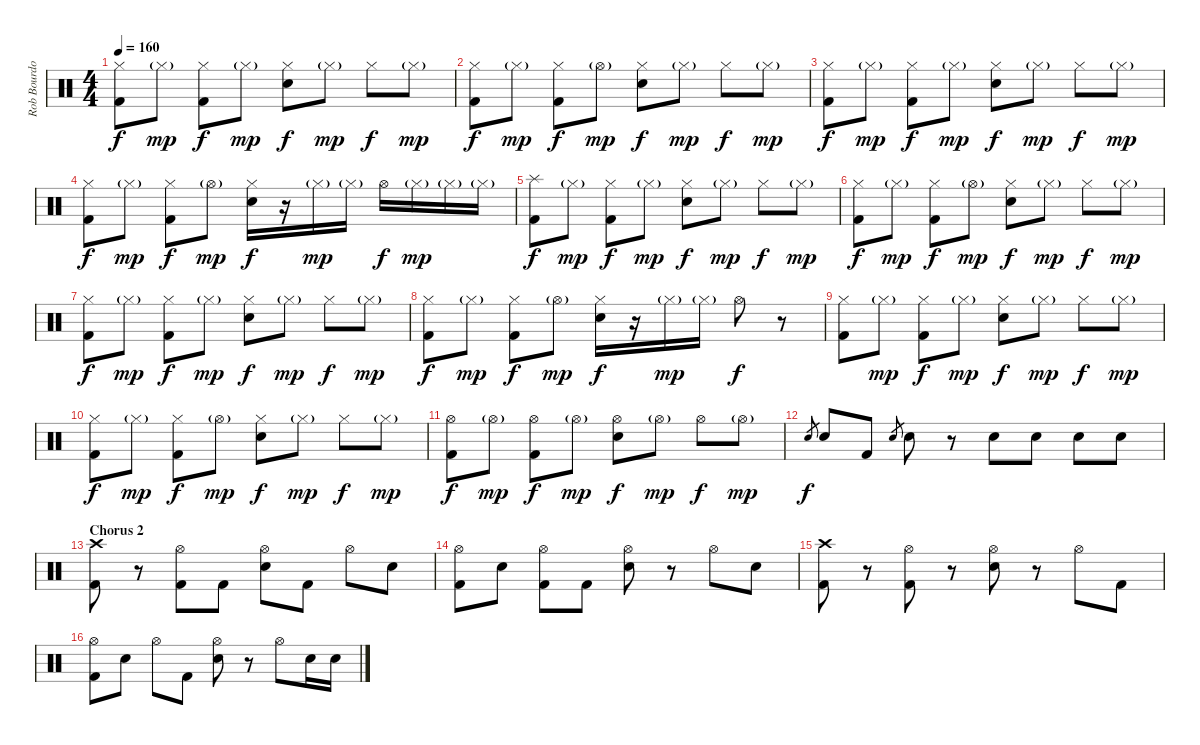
\track ("Rob Bourdon (Drums)" "Rob Bourdo") {instrument percussion}
\staff {score}
\articulation defaults
\ts (4 4)
\tempo 160
\clef neutral
\ks c
("Hi-Hat (closed)" "Kick (hit) 2").8{dy f} "Hi-Hat (closed)"{g}.8{dy mp} ("Hi-Hat (closed)" "Kick (hit) 2").8{dy f} "Hi-Hat (closed)"{g}.8{dy mp} ("Hi-Hat (closed)" "Electric Snare (hit)").8{dy f} "Hi-Hat (closed)"{g}.8{dy mp} "Hi-Hat (closed)".8{dy f} "Hi-Hat (closed)"{g}.8{dy mp} |
("Hi-Hat (closed)" "Kick (hit) 2").8{dy f} "Hi-Hat (closed)"{g}.8{dy mp} ("Hi-Hat (closed)" "Kick (hit) 2").8{dy f} "Hi-Hat (open)"{g}.8{dy mp} ("Hi-Hat (closed)" "Electric Snare (hit)").8{dy f} "Hi-Hat (closed)"{g}.8{dy mp} "Hi-Hat (closed)".8{dy f} "Hi-Hat (closed)"{g}.8{dy mp} |
("Hi-Hat (closed)" "Kick (hit) 2").8{dy f} "Hi-Hat (closed)"{g}.8{dy mp} ("Hi-Hat (closed)" "Kick (hit) 2").8{dy f} "Hi-Hat (closed)"{g}.8{dy mp} ("Hi-Hat (closed)" "Electric Snare (hit)").8{dy f} "Hi-Hat (closed)"{g}.8{dy mp} "Hi-Hat (closed)".8{dy f} "Hi-Hat (closed)"{g}.8{dy mp} |
("Hi-Hat (closed)" "Kick (hit) 2").8{dy f} "Hi-Hat (closed)"{g}.8{dy mp} ("Hi-Hat (closed)" "Kick (hit) 2").8{dy f} "Hi-Hat (open)"{g}.8{dy mp} ("Hi-Hat (closed)" "Electric Snare (hit)").16{dy f} r.16 "Hi-Hat (closed)"{g}.16{dy mp} "Hi-Hat (closed)"{g}.16 "Hi-Hat (open)".16{dy f} "Hi-Hat (closed)"{g}.16{dy mp} "Hi-Hat (closed)"{g}.16 "Hi-Hat (closed)"{g}.16 |
("Splash (hit)" "Kick (hit) 2").8{dy f} "Hi-Hat (closed)"{g}.8{dy mp} ("Hi-Hat (closed)" "Kick (hit) 2").8{dy f} "Hi-Hat (closed)"{g}.8{dy mp} ("Hi-Hat (closed)" "Electric Snare (hit)").8{dy f} "Hi-Hat (closed)"{g}.8{dy mp} "Hi-Hat (closed)".8{dy f} "Hi-Hat (closed)"{g}.8{dy mp} |
("Hi-Hat (closed)" "Kick (hit) 2").8{dy f} "Hi-Hat (closed)"{g}.8{dy mp} ("Hi-Hat (closed)" "Kick (hit) 2").8{dy f} "Hi-Hat (open)"{g}.8{dy mp} ("Hi-Hat (closed)" "Electric Snare (hit)").8{dy f} "Hi-Hat (closed)"{g}.8{dy mp} "Hi-Hat (closed)".8{dy f} "Hi-Hat (closed)"{g}.8{dy mp} |
("Hi-Hat (closed)" "Kick (hit) 2").8{dy f} "Hi-Hat (closed)"{g}.8{dy mp} ("Hi-Hat (closed)" "Kick (hit) 2").8{dy f} "Hi-Hat (closed)"{g}.8{dy mp} ("Hi-Hat (closed)" "Electric Snare (hit)").8{dy f} "Hi-Hat (closed)"{g}.8{dy mp} "Hi-Hat (closed)".8{dy f} "Hi-Hat (closed)"{g}.8{dy mp} |
("Hi-Hat (closed)" "Kick (hit) 2").8{dy f} "Hi-Hat (closed)"{g}.8{dy mp} ("Hi-Hat (closed)" "Kick (hit) 2").8{dy f} "Hi-Hat (open)"{g}.8{dy mp} ("Hi-Hat (closed)" "Electric Snare (hit)").16{dy f} r.16 "Hi-Hat (closed)"{g}.16{dy mp} "Hi-Hat (closed)"{g}.16 "Hi-Hat (open)".8{dy f} r.8 |
("Hi-Hat (closed)" "Kick (hit) 2").8 "Hi-Hat (closed)"{g}.8{dy mp} ("Hi-Hat (closed)" "Kick (hit) 2").8{dy f} "Hi-Hat (closed)"{g}.8{dy mp} ("Hi-Hat (closed)" "Electric Snare (hit)").8{dy f} "Hi-Hat (closed)"{g}.8{dy mp} "Hi-Hat (closed)".8{dy f} "Hi-Hat (closed)"{g}.8{dy mp} |
("Hi-Hat (closed)" "Kick (hit) 2").8{dy f} "Hi-Hat (closed)"{g}.8{dy mp} ("Hi-Hat (closed)" "Kick (hit) 2").8{dy f} "Hi-Hat (open)"{g}.8{dy mp} ("Hi-Hat (closed)" "Electric Snare (hit)").8{dy f} "Hi-Hat (closed)"{g}.8{dy mp} "Hi-Hat (closed)".8{dy f} "Hi-Hat (closed)"{g}.8{dy mp} |
("Hi-Hat (open)" "Kick (hit) 2").8{dy f} "Hi-Hat (open)"{g}.8{dy mp} ("Hi-Hat (open)" "Kick (hit) 2").8{dy f} "Hi-Hat (open)"{g}.8{dy mp} ("Hi-Hat (open)" "Electric Snare (hit)").8{dy f} "Hi-Hat (open)"{g}.8{dy mp} "Hi-Hat (open)".8{dy f} "Hi-Hat (open)"{g}.8{dy mp} |
"Electric Snare (hit)".8{gr dy f} "Electric Snare (hit)".8 "Kick (hit) 2".8 "Electric Snare (hit)".8{gr} "Electric Snare (hit)".8 r.8 "Electric Snare (hit)".8 "Electric Snare (hit)".8 "Electric Snare (hit)".8 "Electric Snare (hit)".8 |
\section ("" "Chorus 2")
("Crash high (hit)" "Kick (hit) 2").8 r.8 ("Hi-Hat (open)" "Kick (hit) 2").8 "Kick (hit) 2".8 ("Hi-Hat (open)" "Electric Snare (hit)").8 "Kick (hit) 2".8 "Hi-Hat (open)".8 "Electric Snare (hit)".8 |
("Hi-Hat (open)" "Kick (hit) 2").8 "Electric Snare (hit)".8 ("Hi-Hat (open)" "Kick (hit) 2").8 "Kick (hit) 2".8 ("Hi-Hat (open)" "Electric Snare (hit)").8 r.8 "Hi-Hat (open)".8 "Electric Snare (hit)".8 |
("Crash high (hit)" "Kick (hit) 2").8 r.8 ("Hi-Hat (open)" "Kick (hit) 2").8 r.8 ("Hi-Hat (open)" "Electric Snare (hit)").8 r.8 "Hi-Hat (open)".8 "Kick (hit) 2".8 |
("Hi-Hat (open)" "Kick (hit) 2").8 "Electric Snare (hit)".8 "Hi-Hat (open)".8 "Kick (hit) 2".8 ("Hi-Hat (open)" "Electric Snare (hit)").8 r.8 "Hi-Hat (open)".8 "Electric Snare (hit)".16 "Electric Snare (hit)".16
